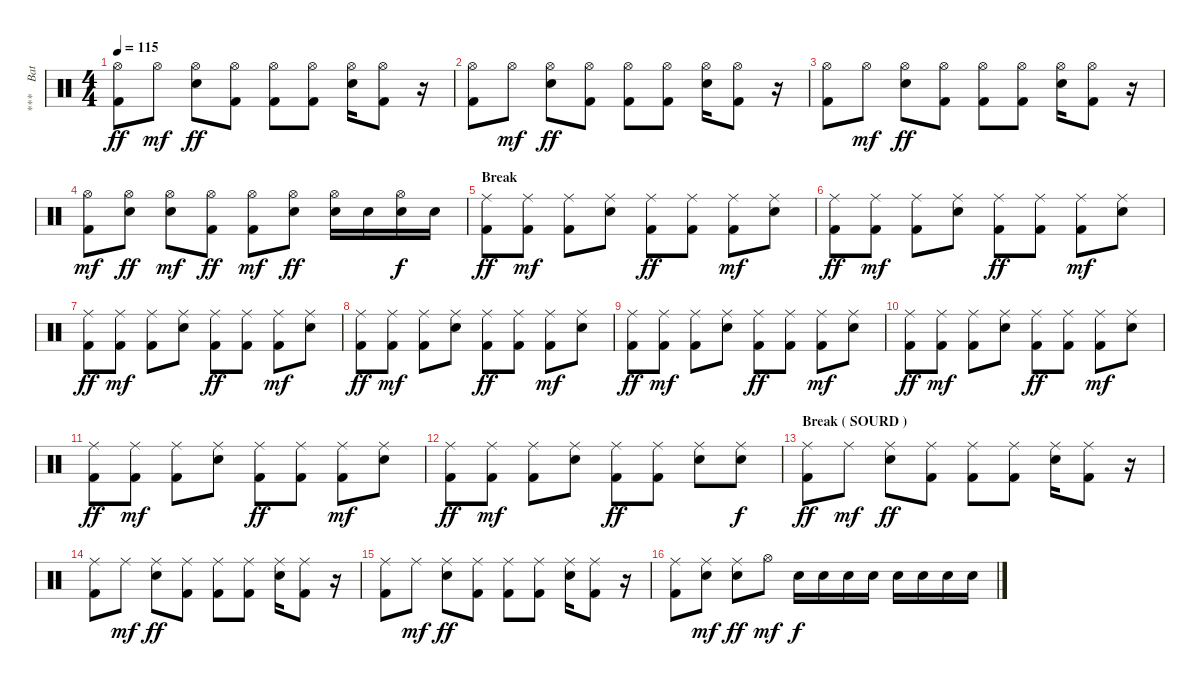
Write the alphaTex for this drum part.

\track ("***    Batterie     ***" "***    Bat") {instrument percussion}
\staff {score}
\articulation defaults
\ts (4 4)
\tempo 115
\clef neutral
\ks c
("Hi-Hat (open)" "Kick (hit) 2").8{dy ff} "Hi-Hat (open)".8{dy mf} ("Hi-Hat (open)" "Snare (hit) 2").8{dy ff} ("Hi-Hat (open)" "Kick (hit) 2").8 ("Hi-Hat (open)" "Kick (hit) 2").8 ("Hi-Hat (open)" "Kick (hit) 2").8 ("Hi-Hat (open)" "Snare (hit) 2").16 ("Hi-Hat (open)" "Kick (hit) 2").8 r.16 |
("Hi-Hat (open)" "Kick (hit) 2").8 "Hi-Hat (open)".8{dy mf} ("Hi-Hat (open)" "Snare (hit) 2").8{dy ff} ("Hi-Hat (open)" "Kick (hit) 2").8 ("Hi-Hat (open)" "Kick (hit) 2").8 ("Hi-Hat (open)" "Kick (hit) 2").8 ("Hi-Hat (open)" "Snare (hit) 2").16 ("Hi-Hat (open)" "Kick (hit) 2").8 r.16 |
("Hi-Hat (open)" "Kick (hit) 2").8 "Hi-Hat (open)".8{dy mf} ("Hi-Hat (open)" "Snare (hit) 2").8{dy ff} ("Hi-Hat (open)" "Kick (hit) 2").8 ("Hi-Hat (open)" "Kick (hit) 2").8 ("Hi-Hat (open)" "Kick (hit) 2").8 ("Hi-Hat (open)" "Snare (hit) 2").16 ("Hi-Hat (open)" "Kick (hit) 2").8 r.16 |
("Hi-Hat (open)" "Kick (hit) 2").8{dy mf} ("Hi-Hat (open)" "Snare (hit) 2").8{dy ff} ("Hi-Hat (open)" "Snare (hit) 2").8{dy mf} ("Hi-Hat (open)" "Kick (hit) 2").8{dy ff} ("Hi-Hat (open)" "Kick (hit) 2").8{dy mf} ("Hi-Hat (open)" "Snare (hit) 2").8{dy ff} ("Hi-Hat (open)" "Snare (hit) 2").16 "Snare (hit) 2".16 ("Hi-Hat (open)" "Snare (hit) 2").16{dy f} "Snare (hit) 2".16 |
\section ("" "Break ")
("Ride (middle)" "Kick (hit) 2").8{dy ff} ("Ride (middle)" "Kick (hit) 2").8{dy mf} ("Ride (middle)" "Kick (hit) 2").8 ("Ride (middle)" "Snare (hit) 2").8 ("Ride (middle)" "Kick (hit) 2").8{dy ff} ("Ride (middle)" "Kick (hit) 2").8 ("Ride (middle)" "Kick (hit) 2").8{dy mf} ("Ride (middle)" "Snare (hit) 2").8 |
("Ride (middle)" "Kick (hit) 2").8{dy ff} ("Ride (middle)" "Kick (hit) 2").8{dy mf} ("Ride (middle)" "Kick (hit) 2").8 ("Ride (middle)" "Snare (hit) 2").8 ("Ride (middle)" "Kick (hit) 2").8{dy ff} ("Ride (middle)" "Kick (hit) 2").8 ("Ride (middle)" "Kick (hit) 2").8{dy mf} ("Ride (middle)" "Snare (hit) 2").8 |
("Ride (middle)" "Kick (hit) 2").8{dy ff} ("Ride (middle)" "Kick (hit) 2").8{dy mf} ("Ride (middle)" "Kick (hit) 2").8 ("Ride (middle)" "Snare (hit) 2").8 ("Ride (middle)" "Kick (hit) 2").8{dy ff} ("Ride (middle)" "Kick (hit) 2").8 ("Ride (middle)" "Kick (hit) 2").8{dy mf} ("Ride (middle)" "Snare (hit) 2").8 |
("Ride (middle)" "Kick (hit) 2").8{dy ff} ("Ride (middle)" "Kick (hit) 2").8{dy mf} ("Ride (middle)" "Kick (hit) 2").8 ("Ride (middle)" "Snare (hit) 2").8 ("Ride (middle)" "Kick (hit) 2").8{dy ff} ("Ride (middle)" "Kick (hit) 2").8 ("Ride (middle)" "Kick (hit) 2").8{dy mf} ("Ride (middle)" "Snare (hit) 2").8 |
("Ride (middle)" "Kick (hit) 2").8{dy ff} ("Ride (middle)" "Kick (hit) 2").8{dy mf} ("Ride (middle)" "Kick (hit) 2").8 ("Ride (middle)" "Snare (hit) 2").8 ("Ride (middle)" "Kick (hit) 2").8{dy ff} ("Ride (middle)" "Kick (hit) 2").8 ("Ride (middle)" "Kick (hit) 2").8{dy mf} ("Ride (middle)" "Snare (hit) 2").8 |
("Ride (middle)" "Kick (hit) 2").8{dy ff} ("Ride (middle)" "Kick (hit) 2").8{dy mf} ("Ride (middle)" "Kick (hit) 2").8 ("Ride (middle)" "Snare (hit) 2").8 ("Ride (middle)" "Kick (hit) 2").8{dy ff} ("Ride (middle)" "Kick (hit) 2").8 ("Ride (middle)" "Kick (hit) 2").8{dy mf} ("Ride (middle)" "Snare (hit) 2").8 |
("Ride (middle)" "Kick (hit) 2").8{dy ff} ("Ride (middle)" "Kick (hit) 2").8{dy mf} ("Ride (middle)" "Kick (hit) 2").8 ("Ride (middle)" "Snare (hit) 2").8 ("Ride (middle)" "Kick (hit) 2").8{dy ff} ("Ride (middle)" "Kick (hit) 2").8 ("Ride (middle)" "Kick (hit) 2").8{dy mf} ("Ride (middle)" "Snare (hit) 2").8 |
("Ride (middle)" "Kick (hit) 2").8{dy ff} ("Ride (middle)" "Kick (hit) 2").8{dy mf} ("Ride (middle)" "Kick (hit) 2").8 ("Ride (middle)" "Snare (hit) 2").8 ("Ride (middle)" "Kick (hit) 2").8{dy ff} ("Ride (middle)" "Kick (hit) 2").8 ("Ride (middle)" "Snare (hit) 2").8 ("Ride (middle)" "Snare (hit) 2").8{dy f} |
\section ("" "Break ( SOURD )")
("Ride (middle)" "Kick (hit) 2").8{dy ff} "Ride (middle)".8{dy mf} ("Ride (middle)" "Snare (hit) 2").8{dy ff} ("Ride (middle)" "Kick (hit) 2").8 ("Ride (middle)" "Kick (hit) 2").8 ("Ride (middle)" "Kick (hit) 2").8 ("Ride (middle)" "Snare (hit) 2").16 ("Ride (middle)" "Kick (hit) 2").8 r.16 |
("Ride (middle)" "Kick (hit) 2").8 "Ride (middle)".8{dy mf} ("Ride (middle)" "Snare (hit) 2").8{dy ff} ("Ride (middle)" "Kick (hit) 2").8 ("Ride (middle)" "Kick (hit) 2").8 ("Ride (middle)" "Kick (hit) 2").8 ("Ride (middle)" "Snare (hit) 2").16 ("Ride (middle)" "Kick (hit) 2").8 r.16 |
("Ride (middle)" "Kick (hit) 2").8 "Ride (middle)".8{dy mf} ("Ride (middle)" "Snare (hit) 2").8{dy ff} ("Ride (middle)" "Kick (hit) 2").8 ("Ride (middle)" "Kick (hit) 2").8 ("Ride (middle)" "Kick (hit) 2").8 ("Ride (middle)" "Snare (hit) 2").16 ("Ride (middle)" "Kick (hit) 2").8 r.16 |
("Ride (middle)" "Kick (hit) 2").8 ("Ride (middle)" "Snare (hit) 2").8{dy mf} ("Ride (middle)" "Snare (hit) 2").8{dy ff} "Hi-Hat (open)".8{dy mf} "Snare (hit) 2".16{dy f} "Snare (hit) 2".16 "Snare (hit) 2".16 "Snare (hit) 2".16 "Snare (hit) 2".16 "Snare (hit) 2".16 "Snare (hit) 2".16 "Snare (hit) 2".16
